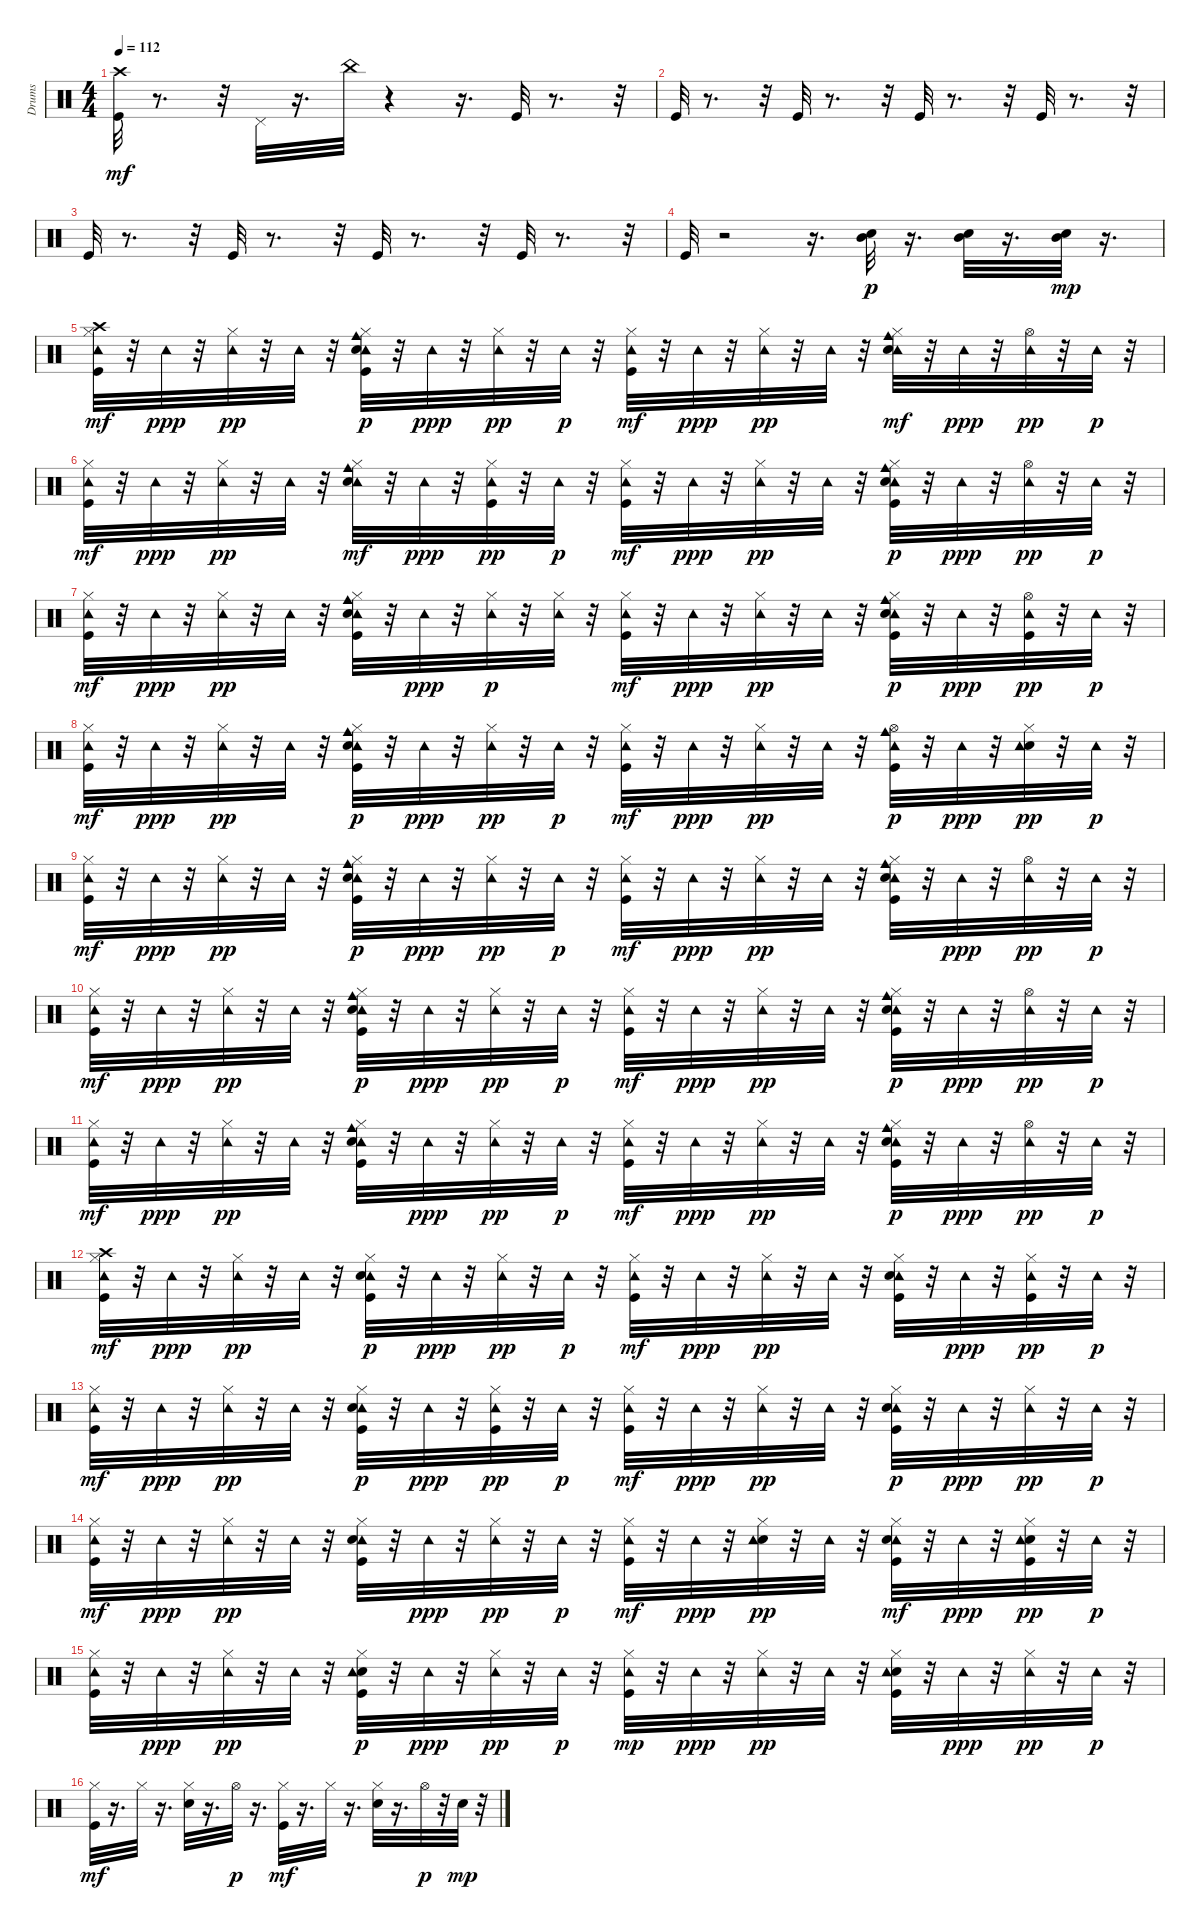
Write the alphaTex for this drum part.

\track ("Drums" "Drums") {instrument percussion}
\staff {score}
\articulation defaults
\ts (4 4)
\tempo 112
\clef neutral
\ks c
("Crash high (hit)" "Kick (hit)").32{dy mf} r.8{d} r.32 "Pedal Hi-Hat (hit)".32 r.16{d} "China (hit)".32 r.4 r.16{d} "Kick (hit)".32 r.8{d} r.32 |
"Kick (hit)".32 r.8{d} r.32 "Kick (hit)".32 r.8{d} r.32 "Kick (hit)".32 r.8{d} r.32 "Kick (hit)".32 r.8{d} r.32 |
"Kick (hit)".32 r.8{d} r.32 "Kick (hit)".32 r.8{d} r.32 "Kick (hit)".32 r.8{d} r.32 "Kick (hit)".32 r.8{d} r.32 |
"Kick (hit)".32 r.2 r.16{d} ("Mid Tom (hit)" "Electric Snare (hit)").32{dy p} r.16{d} ("Mid Tom (hit)" "Electric Snare (hit)").32 r.16{d} ("Mid Tom (hit)" "Electric Snare (hit)").32{dy mp} r.16{d} |
("Tambourine (hit)" "Hi-Hat (closed)" "Crash high (hit)" "Kick (hit)").32{dy mf} r.32 "Tambourine (hit)".32{dy ppp} r.32 ("Tambourine (hit)" "Hi-Hat (closed)").32{dy pp} r.32 "Tambourine (hit)".32 r.32 ("Cowbell medium (hit)" "Tambourine (hit)" "Hi-Hat (closed)" "Electric Snare (hit)" "Kick (hit)").32{dy p} r.32 "Tambourine (hit)".32{dy ppp} r.32 ("Tambourine (hit)" "Hi-Hat (closed)").32{dy pp} r.32 "Tambourine (hit)".32{dy p} r.32 ("Tambourine (hit)" "Hi-Hat (closed)" "Kick (hit)").32{dy mf} r.32 "Tambourine (hit)".32{dy ppp} r.32 ("Tambourine (hit)" "Hi-Hat (closed)").32{dy pp} r.32 "Tambourine (hit)".32 r.32 ("Cowbell medium (hit)" "Tambourine (hit)" "Hi-Hat (closed)" "Electric Snare (hit)").32{dy mf} r.32 "Tambourine (hit)".32{dy ppp} r.32 ("Hi-Hat (open)" "Tambourine (hit)").32{dy pp} r.32 "Tambourine (hit)".32{dy p} r.32 |
("Tambourine (hit)" "Hi-Hat (closed)" "Kick (hit)").32{dy mf} r.32 "Tambourine (hit)".32{dy ppp} r.32 ("Tambourine (hit)" "Hi-Hat (closed)").32{dy pp} r.32 "Tambourine (hit)".32 r.32 ("Cowbell medium (hit)" "Tambourine (hit)" "Hi-Hat (closed)" "Electric Snare (hit)").32{dy mf} r.32 "Tambourine (hit)".32{dy ppp} r.32 ("Kick (hit)" "Tambourine (hit)" "Hi-Hat (closed)").32{dy pp} r.32 "Tambourine (hit)".32{dy p} r.32 ("Tambourine (hit)" "Hi-Hat (closed)" "Kick (hit)").32{dy mf} r.32 "Tambourine (hit)".32{dy ppp} r.32 ("Tambourine (hit)" "Hi-Hat (closed)").32{dy pp} r.32 "Tambourine (hit)".32 r.32 ("Cowbell medium (hit)" "Tambourine (hit)" "Hi-Hat (closed)" "Electric Snare (hit)" "Kick (hit)").32{dy p} r.32 "Tambourine (hit)".32{dy ppp} r.32 ("Hi-Hat (open)" "Tambourine (hit)").32{dy pp} r.32 "Tambourine (hit)".32{dy p} r.32 |
("Tambourine (hit)" "Hi-Hat (closed)" "Kick (hit)").32{dy mf} r.32 "Tambourine (hit)".32{dy ppp} r.32 ("Tambourine (hit)" "Hi-Hat (closed)").32{dy pp} r.32 "Tambourine (hit)".32 r.32 ("Cowbell medium (hit)" "Tambourine (hit)" "Hi-Hat (closed)" "Electric Snare (hit)" "Kick (hit)").32 r.32 "Tambourine (hit)".32{dy ppp} r.32 ("Tambourine (hit)" "Hi-Hat (closed)").32{dy p} r.32 ("Hi-Hat (closed)" "Tambourine (hit)").32 r.32 ("Tambourine (hit)" "Hi-Hat (closed)" "Kick (hit)").32{dy mf} r.32 "Tambourine (hit)".32{dy ppp} r.32 ("Tambourine (hit)" "Hi-Hat (closed)").32{dy pp} r.32 "Tambourine (hit)".32 r.32 ("Cowbell medium (hit)" "Tambourine (hit)" "Hi-Hat (closed)" "Electric Snare (hit)" "Kick (hit)").32{dy p} r.32 "Tambourine (hit)".32{dy ppp} r.32 ("Kick (hit)" "Hi-Hat (open)" "Tambourine (hit)").32{dy pp} r.32 "Tambourine (hit)".32{dy p} r.32 |
("Tambourine (hit)" "Hi-Hat (closed)" "Kick (hit)").32{dy mf} r.32 "Tambourine (hit)".32{dy ppp} r.32 ("Tambourine (hit)" "Hi-Hat (closed)").32{dy pp} r.32 "Tambourine (hit)".32 r.32 ("Cowbell medium (hit)" "Tambourine (hit)" "Hi-Hat (closed)" "Electric Snare (hit)" "Kick (hit)").32{dy p} r.32 "Tambourine (hit)".32{dy ppp} r.32 ("Tambourine (hit)" "Hi-Hat (closed)").32{dy pp} r.32 "Tambourine (hit)".32{dy p} r.32 ("Tambourine (hit)" "Hi-Hat (closed)" "Kick (hit)").32{dy mf} r.32 "Tambourine (hit)".32{dy ppp} r.32 ("Hi-Hat (closed)" "Tambourine (hit)").32{dy pp} r.32 "Tambourine (hit)".32 r.32 ("Hi-Hat (open)" "Cowbell medium (hit)" "Tambourine (hit)" "Kick (hit)").32{dy p} r.32 "Tambourine (hit)".32{dy ppp} r.32 ("Electric Snare (hit)" "Hi-Hat (closed)" "Tambourine (hit)").32{dy pp} r.32 "Tambourine (hit)".32{dy p} r.32 |
("Tambourine (hit)" "Hi-Hat (closed)" "Kick (hit)").32{dy mf} r.32 "Tambourine (hit)".32{dy ppp} r.32 ("Tambourine (hit)" "Hi-Hat (closed)").32{dy pp} r.32 "Tambourine (hit)".32 r.32 ("Cowbell medium (hit)" "Tambourine (hit)" "Hi-Hat (closed)" "Electric Snare (hit)" "Kick (hit)").32{dy p} r.32 "Tambourine (hit)".32{dy ppp} r.32 ("Tambourine (hit)" "Hi-Hat (closed)").32{dy pp} r.32 "Tambourine (hit)".32{dy p} r.32 ("Tambourine (hit)" "Hi-Hat (closed)" "Kick (hit)").32{dy mf} r.32 "Tambourine (hit)".32{dy ppp} r.32 ("Tambourine (hit)" "Hi-Hat (closed)").32{dy pp} r.32 "Tambourine (hit)".32 r.32 ("Cowbell medium (hit)" "Tambourine (hit)" "Hi-Hat (closed)" "Electric Snare (hit)" "Kick (hit)").32 r.32 "Tambourine (hit)".32{dy ppp} r.32 ("Hi-Hat (open)" "Tambourine (hit)").32{dy pp} r.32 "Tambourine (hit)".32{dy p} r.32 |
("Tambourine (hit)" "Hi-Hat (closed)" "Kick (hit)").32{dy mf} r.32 "Tambourine (hit)".32{dy ppp} r.32 ("Tambourine (hit)" "Hi-Hat (closed)").32{dy pp} r.32 "Tambourine (hit)".32 r.32 ("Cowbell medium (hit)" "Tambourine (hit)" "Hi-Hat (closed)" "Electric Snare (hit)" "Kick (hit)").32{dy p} r.32 "Tambourine (hit)".32{dy ppp} r.32 ("Tambourine (hit)" "Hi-Hat (closed)").32{dy pp} r.32 "Tambourine (hit)".32{dy p} r.32 ("Tambourine (hit)" "Hi-Hat (closed)" "Kick (hit)").32{dy mf} r.32 "Tambourine (hit)".32{dy ppp} r.32 ("Tambourine (hit)" "Hi-Hat (closed)").32{dy pp} r.32 "Tambourine (hit)".32 r.32 ("Cowbell medium (hit)" "Tambourine (hit)" "Hi-Hat (closed)" "Electric Snare (hit)" "Kick (hit)").32{dy p} r.32 "Tambourine (hit)".32{dy ppp} r.32 ("Hi-Hat (open)" "Tambourine (hit)").32{dy pp} r.32 "Tambourine (hit)".32{dy p} r.32 |
("Tambourine (hit)" "Hi-Hat (closed)" "Kick (hit)").32{dy mf} r.32 "Tambourine (hit)".32{dy ppp} r.32 ("Tambourine (hit)" "Hi-Hat (closed)").32{dy pp} r.32 "Tambourine (hit)".32 r.32 ("Cowbell medium (hit)" "Tambourine (hit)" "Hi-Hat (closed)" "Electric Snare (hit)" "Kick (hit)").32 r.32 "Tambourine (hit)".32{dy ppp} r.32 ("Tambourine (hit)" "Hi-Hat (closed)").32{dy pp} r.32 "Tambourine (hit)".32{dy p} r.32 ("Tambourine (hit)" "Hi-Hat (closed)" "Kick (hit)").32{dy mf} r.32 "Tambourine (hit)".32{dy ppp} r.32 ("Tambourine (hit)" "Hi-Hat (closed)").32{dy pp} r.32 "Tambourine (hit)".32 r.32 ("Cowbell medium (hit)" "Tambourine (hit)" "Hi-Hat (closed)" "Electric Snare (hit)" "Kick (hit)").32{dy p} r.32 "Tambourine (hit)".32{dy ppp} r.32 ("Hi-Hat (open)" "Tambourine (hit)").32{dy pp} r.32 "Tambourine (hit)".32{dy p} r.32 |
("Tambourine (hit)" "Hi-Hat (closed)" "Crash high (hit)" "Kick (hit)").32{dy mf} r.32 "Tambourine (hit)".32{dy ppp} r.32 ("Tambourine (hit)" "Hi-Hat (closed)").32{dy pp} r.32 "Tambourine (hit)".32 r.32 ("Tambourine (hit)" "Hi-Hat (closed)" "Electric Snare (hit)" "Kick (hit)").32{dy p} r.32 "Tambourine (hit)".32{dy ppp} r.32 ("Tambourine (hit)" "Hi-Hat (closed)").32{dy pp} r.32 "Tambourine (hit)".32{dy p} r.32 ("Tambourine (hit)" "Hi-Hat (closed)" "Kick (hit)").32{dy mf} r.32 "Tambourine (hit)".32{dy ppp} r.32 ("Tambourine (hit)" "Hi-Hat (closed)").32{dy pp} r.32 "Tambourine (hit)".32 r.32 ("Tambourine (hit)" "Hi-Hat (closed)" "Electric Snare (hit)" "Kick (hit)").32 r.32 "Tambourine (hit)".32{dy ppp} r.32 ("Kick (hit)" "Hi-Hat (closed)" "Tambourine (hit)").32{dy pp} r.32 "Tambourine (hit)".32{dy p} r.32 |
("Tambourine (hit)" "Hi-Hat (closed)" "Kick (hit)").32{dy mf} r.32 "Tambourine (hit)".32{dy ppp} r.32 ("Tambourine (hit)" "Hi-Hat (closed)").32{dy pp} r.32 "Tambourine (hit)".32 r.32 ("Tambourine (hit)" "Hi-Hat (closed)" "Electric Snare (hit)" "Kick (hit)").32{dy p} r.32 "Tambourine (hit)".32{dy ppp} r.32 ("Kick (hit)" "Tambourine (hit)" "Hi-Hat (closed)").32{dy pp} r.32 "Tambourine (hit)".32{dy p} r.32 ("Tambourine (hit)" "Hi-Hat (closed)" "Kick (hit)").32{dy mf} r.32 "Tambourine (hit)".32{dy ppp} r.32 ("Tambourine (hit)" "Hi-Hat (closed)").32{dy pp} r.32 "Tambourine (hit)".32 r.32 ("Tambourine (hit)" "Hi-Hat (closed)" "Electric Snare (hit)" "Kick (hit)").32{dy p} r.32 "Tambourine (hit)".32{dy ppp} r.32 ("Hi-Hat (closed)" "Tambourine (hit)").32{dy pp} r.32 "Tambourine (hit)".32{dy p} r.32 |
("Tambourine (hit)" "Hi-Hat (closed)" "Kick (hit)").32{dy mf} r.32 "Tambourine (hit)".32{dy ppp} r.32 ("Tambourine (hit)" "Hi-Hat (closed)").32{dy pp} r.32 "Tambourine (hit)".32 r.32 ("Tambourine (hit)" "Hi-Hat (closed)" "Electric Snare (hit)" "Kick (hit)").32 r.32 "Tambourine (hit)".32{dy ppp} r.32 ("Tambourine (hit)" "Hi-Hat (closed)").32{dy pp} r.32 "Tambourine (hit)".32{dy p} r.32 ("Tambourine (hit)" "Hi-Hat (closed)" "Kick (hit)").32{dy mf} r.32 "Tambourine (hit)".32{dy ppp} r.32 ("Electric Snare (hit)" "Tambourine (hit)" "Hi-Hat (closed)").32{dy pp} r.32 "Tambourine (hit)".32 r.32 ("Kick (hit)" "Tambourine (hit)" "Hi-Hat (closed)" "Electric Snare (hit)").32{dy mf} r.32 "Tambourine (hit)".32{dy ppp} r.32 ("Kick (hit)" "Electric Snare (hit)" "Hi-Hat (closed)" "Tambourine (hit)").32{dy pp} r.32 "Tambourine (hit)".32{dy p} r.32 |
("Kick (hit)" "Hi-Hat (closed)" "Tambourine (hit)").32 r.32 "Tambourine (hit)".32{dy ppp} r.32 ("Hi-Hat (closed)" "Tambourine (hit)").32{dy pp} r.32 "Tambourine (hit)".32 r.32 ("Kick (hit)" "Electric Snare (hit)" "Hi-Hat (closed)" "Tambourine (hit)").32{dy p} r.32 "Tambourine (hit)".32{dy ppp} r.32 ("Hi-Hat (closed)" "Tambourine (hit)").32{dy pp} r.32 "Tambourine (hit)".32{dy p} r.32 ("Kick (hit)" "Hi-Hat (closed)" "Tambourine (hit)").32{dy mp} r.32 "Tambourine (hit)".32{dy ppp} r.32 ("Hi-Hat (closed)" "Tambourine (hit)").32{dy pp} r.32 "Tambourine (hit)".32 r.32 ("Electric Snare (hit)" "Hi-Hat (closed)" "Tambourine (hit)" "Kick (hit)").32 r.32 "Tambourine (hit)".32{dy ppp} r.32 ("Tambourine (hit)" "Hi-Hat (closed)").32{dy pp} r.32 "Tambourine (hit)".32{dy p} r.32 |
("Hi-Hat (closed)" "Kick (hit)").32{dy mf} r.16{d} "Hi-Hat (closed)".32 r.16{d} ("Hi-Hat (closed)" "Electric Snare (hit)").32 r.16{d} "Hi-Hat (open)".32{dy p} r.16{d} ("Hi-Hat (closed)" "Kick (hit)").32{dy mf} r.16{d} "Hi-Hat (closed)".32 r.16{d} ("Hi-Hat (closed)" "Electric Snare (hit)").32 r.16{d} "Hi-Hat (open)".32{dy p} r.32 "Electric Snare (hit)".32{dy mp} r.32
